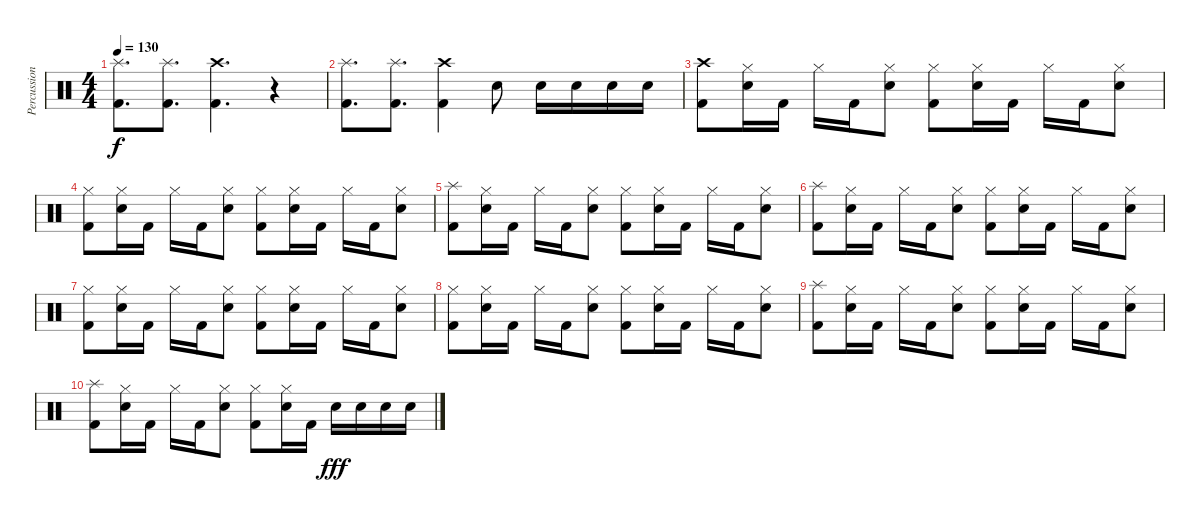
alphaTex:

\track ("Percussion" "Percussion") {instrument percussion}
\staff {score}
\articulation defaults
\ts (4 4)
\tempo 130
\clef neutral
\ks c
("Splash (hit)" "Kick (hit) 2").8{d dy f} ("Splash (hit)" "Kick (hit) 2").8{d} ("Crash high (hit)" "Kick (hit) 2").4{d} r.4 |
("Splash (hit)" "Kick (hit) 2").8{d} ("Splash (hit)" "Kick (hit) 2").8{d} ("Crash high (hit)" "Kick (hit) 2").4 "Snare (hit) 2".8 "Snare (hit) 2".16 "Snare (hit) 2".16 "Snare (hit) 2".16 "Snare (hit) 2".16 |
("Crash high (hit)" "Kick (hit) 2").8 ("Hi-Hat (closed)" "Snare (hit) 2").16 "Kick (hit) 2".16 "Hi-Hat (closed)".16 "Kick (hit) 2".16 ("Hi-Hat (closed)" "Snare (hit) 2").8 ("Hi-Hat (closed)" "Kick (hit) 2").8 ("Hi-Hat (closed)" "Snare (hit) 2").16 "Kick (hit) 2".16 "Hi-Hat (closed)".16 "Kick (hit) 2".16 ("Hi-Hat (closed)" "Snare (hit) 2").8 |
("Hi-Hat (closed)" "Kick (hit) 2").8 ("Hi-Hat (closed)" "Snare (hit) 2").16 "Kick (hit) 2".16 "Hi-Hat (closed)".16 "Kick (hit) 2".16 ("Hi-Hat (closed)" "Snare (hit) 2").8 ("Hi-Hat (closed)" "Kick (hit) 2").8 ("Hi-Hat (closed)" "Snare (hit) 2").16 "Kick (hit) 2".16 "Hi-Hat (closed)".16 "Kick (hit) 2".16 ("Hi-Hat (closed)" "Snare (hit) 2").8 |
("Splash (hit)" "Kick (hit) 2").8 ("Hi-Hat (closed)" "Snare (hit) 2").16 "Kick (hit) 2".16 "Hi-Hat (closed)".16 "Kick (hit) 2".16 ("Hi-Hat (closed)" "Snare (hit) 2").8 ("Hi-Hat (closed)" "Kick (hit) 2").8 ("Hi-Hat (closed)" "Snare (hit) 2").16 "Kick (hit) 2".16 "Hi-Hat (closed)".16 "Kick (hit) 2".16 ("Hi-Hat (closed)" "Snare (hit) 2").8 |
("Splash (hit)" "Kick (hit) 2").8 ("Hi-Hat (closed)" "Snare (hit) 2").16 "Kick (hit) 2".16 "Hi-Hat (closed)".16 "Kick (hit) 2".16 ("Hi-Hat (closed)" "Snare (hit) 2").8 ("Hi-Hat (closed)" "Kick (hit) 2").8 ("Hi-Hat (closed)" "Snare (hit) 2").16 "Kick (hit) 2".16 "Hi-Hat (closed)".16 "Kick (hit) 2".16 ("Hi-Hat (closed)" "Snare (hit) 2").8 |
("Hi-Hat (closed)" "Kick (hit) 2").8 ("Hi-Hat (closed)" "Snare (hit) 2").16 "Kick (hit) 2".16 "Hi-Hat (closed)".16 "Kick (hit) 2".16 ("Hi-Hat (closed)" "Snare (hit) 2").8 ("Hi-Hat (closed)" "Kick (hit) 2").8 ("Hi-Hat (closed)" "Snare (hit) 2").16 "Kick (hit) 2".16 "Hi-Hat (closed)".16 "Kick (hit) 2".16 ("Hi-Hat (closed)" "Snare (hit) 2").8 |
("Hi-Hat (closed)" "Kick (hit) 2").8 ("Hi-Hat (closed)" "Snare (hit) 2").16 "Kick (hit) 2".16 "Hi-Hat (closed)".16 "Kick (hit) 2".16 ("Hi-Hat (closed)" "Snare (hit) 2").8 ("Hi-Hat (closed)" "Kick (hit) 2").8 ("Hi-Hat (closed)" "Snare (hit) 2").16 "Kick (hit) 2".16 "Hi-Hat (closed)".16 "Kick (hit) 2".16 ("Hi-Hat (closed)" "Snare (hit) 2").8 |
("Splash (hit)" "Kick (hit) 2").8 ("Hi-Hat (closed)" "Snare (hit) 2").16 "Kick (hit) 2".16 "Hi-Hat (closed)".16 "Kick (hit) 2".16 ("Hi-Hat (closed)" "Snare (hit) 2").8 ("Hi-Hat (closed)" "Kick (hit) 2").8 ("Hi-Hat (closed)" "Snare (hit) 2").16 "Kick (hit) 2".16 "Hi-Hat (closed)".16 "Kick (hit) 2".16 ("Hi-Hat (closed)" "Snare (hit) 2").8 |
("Splash (hit)" "Kick (hit) 2").8 ("Hi-Hat (closed)" "Snare (hit) 2").16 "Kick (hit) 2".16 "Hi-Hat (closed)".16 "Kick (hit) 2".16 ("Hi-Hat (closed)" "Snare (hit) 2").8 ("Hi-Hat (closed)" "Kick (hit) 2").8 ("Hi-Hat (closed)" "Snare (hit) 2").16 "Kick (hit) 2".16 "Snare (hit) 2".16{dy fff} "Snare (hit) 2".16 "Snare (hit) 2".16 "Snare (hit) 2".16
